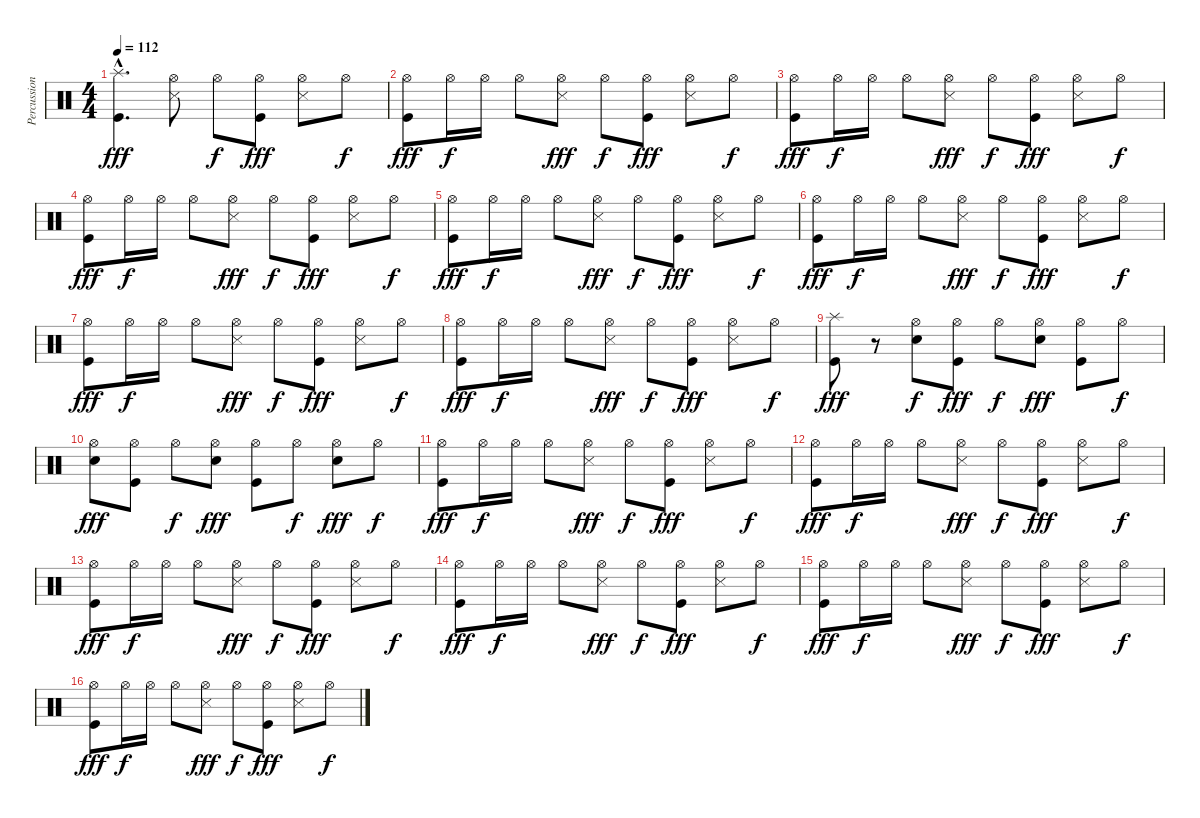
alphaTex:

\track ("Percussion" "Percussion") {instrument percussion}
\staff {score}
\articulation defaults
\ts (4 4)
\tempo 112
\clef neutral
\ks c
("Splash (hit)"{hac} "Kick (hit)"{hac}).4{d dy fff} ("Hi-Hat (open)" "Snare (side stick) 3").8 "Hi-Hat (open)".8{dy f} ("Hi-Hat (open)" "Kick (hit)").8{dy fff} ("Hi-Hat (open)" "Snare (side stick) 3").8 "Hi-Hat (open)".8{dy f} |
("Hi-Hat (open)" "Kick (hit)").8{dy fff} "Hi-Hat (open)".16{dy f} "Hi-Hat (open)".16 "Hi-Hat (open)".8 ("Hi-Hat (open)" "Snare (side stick) 3").8{dy fff} "Hi-Hat (open)".8{dy f} ("Hi-Hat (open)" "Kick (hit)").8{dy fff} ("Hi-Hat (open)" "Snare (side stick) 3").8 "Hi-Hat (open)".8{dy f} |
("Hi-Hat (open)" "Kick (hit)").8{dy fff} "Hi-Hat (open)".16{dy f} "Hi-Hat (open)".16 "Hi-Hat (open)".8 ("Hi-Hat (open)" "Snare (side stick) 3").8{dy fff} "Hi-Hat (open)".8{dy f} ("Hi-Hat (open)" "Kick (hit)").8{dy fff} ("Hi-Hat (open)" "Snare (side stick) 3").8 "Hi-Hat (open)".8{dy f} |
("Hi-Hat (open)" "Kick (hit)").8{dy fff} "Hi-Hat (open)".16{dy f} "Hi-Hat (open)".16 "Hi-Hat (open)".8 ("Hi-Hat (open)" "Snare (side stick) 3").8{dy fff} "Hi-Hat (open)".8{dy f} ("Hi-Hat (open)" "Kick (hit)").8{dy fff} ("Hi-Hat (open)" "Snare (side stick) 3").8 "Hi-Hat (open)".8{dy f} |
("Hi-Hat (open)" "Kick (hit)").8{dy fff} "Hi-Hat (open)".16{dy f} "Hi-Hat (open)".16 "Hi-Hat (open)".8 ("Hi-Hat (open)" "Snare (side stick) 3").8{dy fff} "Hi-Hat (open)".8{dy f} ("Hi-Hat (open)" "Kick (hit)").8{dy fff} ("Hi-Hat (open)" "Snare (side stick) 3").8 "Hi-Hat (open)".8{dy f} |
("Hi-Hat (open)" "Kick (hit)").8{dy fff} "Hi-Hat (open)".16{dy f} "Hi-Hat (open)".16 "Hi-Hat (open)".8 ("Hi-Hat (open)" "Snare (side stick) 3").8{dy fff} "Hi-Hat (open)".8{dy f} ("Hi-Hat (open)" "Kick (hit)").8{dy fff} ("Hi-Hat (open)" "Snare (side stick) 3").8 "Hi-Hat (open)".8{dy f} |
("Hi-Hat (open)" "Kick (hit)").8{dy fff} "Hi-Hat (open)".16{dy f} "Hi-Hat (open)".16 "Hi-Hat (open)".8 ("Hi-Hat (open)" "Snare (side stick) 3").8{dy fff} "Hi-Hat (open)".8{dy f} ("Hi-Hat (open)" "Kick (hit)").8{dy fff} ("Hi-Hat (open)" "Snare (side stick) 3").8 "Hi-Hat (open)".8{dy f} |
("Hi-Hat (open)" "Kick (hit)").8{dy fff} "Hi-Hat (open)".16{dy f} "Hi-Hat (open)".16 "Hi-Hat (open)".8 ("Hi-Hat (open)" "Snare (side stick) 3").8{dy fff} "Hi-Hat (open)".8{dy f} ("Hi-Hat (open)" "Kick (hit)").8{dy fff} ("Hi-Hat (open)" "Snare (side stick) 3").8 "Hi-Hat (open)".8{dy f} |
("Splash (hit)" "Kick (hit)").8{dy fff} r.8 ("Hi-Hat (open)" "Snare (hit) 2").8{dy f} ("Hi-Hat (open)" "Kick (hit)").8{dy fff} "Hi-Hat (open)".8{dy f} ("Hi-Hat (open)" "Snare (hit) 2").8{dy fff} ("Hi-Hat (open)" "Kick (hit)").8 "Hi-Hat (open)".8{dy f} |
("Hi-Hat (open)" "Snare (hit) 2").8{dy fff} ("Hi-Hat (open)" "Kick (hit)").8 "Hi-Hat (open)".8{dy f} ("Hi-Hat (open)" "Snare (hit) 2").8{dy fff} ("Hi-Hat (open)" "Kick (hit)").8 "Hi-Hat (open)".8{dy f} ("Hi-Hat (open)" "Snare (hit) 2").8{dy fff} "Hi-Hat (open)".8{dy f} |
("Hi-Hat (open)" "Kick (hit)").8{dy fff} "Hi-Hat (open)".16{dy f} "Hi-Hat (open)".16 "Hi-Hat (open)".8 ("Hi-Hat (open)" "Snare (side stick) 3").8{dy fff} "Hi-Hat (open)".8{dy f} ("Hi-Hat (open)" "Kick (hit)").8{dy fff} ("Hi-Hat (open)" "Snare (side stick) 3").8 "Hi-Hat (open)".8{dy f} |
("Hi-Hat (open)" "Kick (hit)").8{dy fff} "Hi-Hat (open)".16{dy f} "Hi-Hat (open)".16 "Hi-Hat (open)".8 ("Hi-Hat (open)" "Snare (side stick) 3").8{dy fff} "Hi-Hat (open)".8{dy f} ("Hi-Hat (open)" "Kick (hit)").8{dy fff} ("Hi-Hat (open)" "Snare (side stick) 3").8 "Hi-Hat (open)".8{dy f} |
("Hi-Hat (open)" "Kick (hit)").8{dy fff} "Hi-Hat (open)".16{dy f} "Hi-Hat (open)".16 "Hi-Hat (open)".8 ("Hi-Hat (open)" "Snare (side stick) 3").8{dy fff} "Hi-Hat (open)".8{dy f} ("Hi-Hat (open)" "Kick (hit)").8{dy fff} ("Hi-Hat (open)" "Snare (side stick) 3").8 "Hi-Hat (open)".8{dy f} |
("Hi-Hat (open)" "Kick (hit)").8{dy fff} "Hi-Hat (open)".16{dy f} "Hi-Hat (open)".16 "Hi-Hat (open)".8 ("Hi-Hat (open)" "Snare (side stick) 3").8{dy fff} "Hi-Hat (open)".8{dy f} ("Hi-Hat (open)" "Kick (hit)").8{dy fff} ("Hi-Hat (open)" "Snare (side stick) 3").8 "Hi-Hat (open)".8{dy f} |
("Hi-Hat (open)" "Kick (hit)").8{dy fff} "Hi-Hat (open)".16{dy f} "Hi-Hat (open)".16 "Hi-Hat (open)".8 ("Hi-Hat (open)" "Snare (side stick) 3").8{dy fff} "Hi-Hat (open)".8{dy f} ("Hi-Hat (open)" "Kick (hit)").8{dy fff} ("Hi-Hat (open)" "Snare (side stick) 3").8 "Hi-Hat (open)".8{dy f} |
("Hi-Hat (open)" "Kick (hit)").8{dy fff} "Hi-Hat (open)".16{dy f} "Hi-Hat (open)".16 "Hi-Hat (open)".8 ("Hi-Hat (open)" "Snare (side stick) 3").8{dy fff} "Hi-Hat (open)".8{dy f} ("Hi-Hat (open)" "Kick (hit)").8{dy fff} ("Hi-Hat (open)" "Snare (side stick) 3").8 "Hi-Hat (open)".8{dy f}
